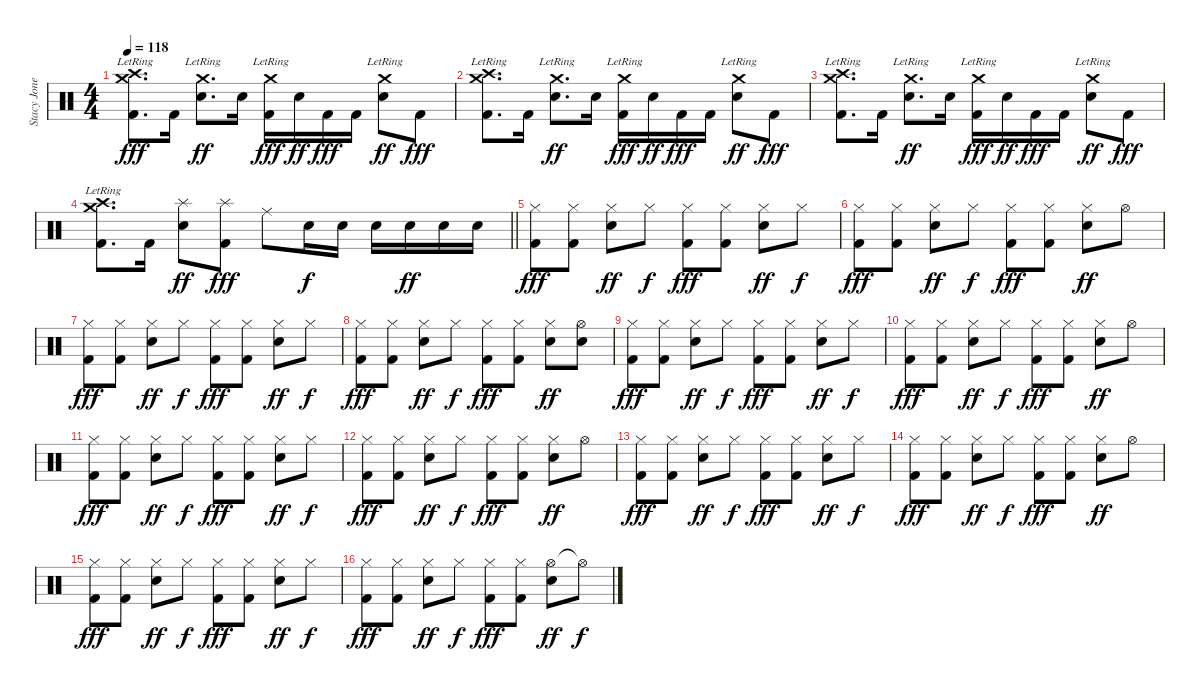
\track ("Stacy Jones: Remo/Sabian HHX/AAX" "Stacy Jone") {instrument percussion}
\staff {score}
\articulation defaults
\ts (4 4)
\tempo 118
\clef neutral
\ks c
("Crash medium (hit)"{lr} "Crash high (hit)"{lr} "Kick (hit) 2").8{d dy fff} "Kick (hit) 2".16 ("Crash medium (hit)"{lr} "Electric Snare (hit)").8{d dy ff} "Electric Snare (hit)".16 ("Crash medium (hit)"{lr} "Kick (hit) 2").16{dy fff} "Electric Snare (hit)".16{dy ff} "Kick (hit) 2".16{dy fff} "Kick (hit) 2".16 ("Crash medium (hit)"{lr} "Electric Snare (hit)").8{dy ff} "Kick (hit) 2".8{dy fff} |
("Crash medium (hit)"{lr} "Crash high (hit)"{lr} "Kick (hit) 2").8{d} "Kick (hit) 2".16 ("Crash medium (hit)"{lr} "Electric Snare (hit)").8{d dy ff} "Electric Snare (hit)".16 ("Crash medium (hit)"{lr} "Kick (hit) 2").16{dy fff} "Electric Snare (hit)".16{dy ff} "Kick (hit) 2".16{dy fff} "Kick (hit) 2".16 ("Crash medium (hit)"{lr} "Electric Snare (hit)").8{dy ff} "Kick (hit) 2".8{dy fff} |
("Crash medium (hit)"{lr} "Crash high (hit)"{lr} "Kick (hit) 2").8{d} "Kick (hit) 2".16 ("Crash medium (hit)"{lr} "Electric Snare (hit)").8{d dy ff} "Electric Snare (hit)".16 ("Crash medium (hit)"{lr} "Kick (hit) 2").16{dy fff} "Electric Snare (hit)".16{dy ff} "Kick (hit) 2".16{dy fff} "Kick (hit) 2".16 ("Crash medium (hit)"{lr} "Electric Snare (hit)").8{dy ff} "Kick (hit) 2".8{dy fff} |
\barLineRight lightlight
("Crash medium (hit)"{lr} "Crash high (hit)"{lr} "Kick (hit) 2").8{d} "Kick (hit) 2".16 ("Splash (hit)" "Electric Snare (hit)").8{dy ff} ("Splash (hit)" "Kick (hit) 2").8{dy fff} "Ride (middle)".8 "Electric Snare (hit)".16{dy f} "Electric Snare (hit)".16 "Electric Snare (hit)".16 "Electric Snare (hit)".16{dy ff} "Electric Snare (hit)".16 "Electric Snare (hit)".16 |
("Hi-Hat (closed)" "Kick (hit) 2").8{dy fff} ("Hi-Hat (closed)" "Kick (hit) 2").8 ("Hi-Hat (closed)" "Electric Snare (hit)").8{dy ff} "Hi-Hat (closed)".8{dy f} ("Hi-Hat (closed)" "Kick (hit) 2").8{dy fff} ("Hi-Hat (closed)" "Kick (hit) 2").8 ("Hi-Hat (closed)" "Electric Snare (hit)").8{dy ff} "Hi-Hat (closed)".8{dy f} |
("Hi-Hat (closed)" "Kick (hit) 2").8{dy fff} ("Hi-Hat (closed)" "Kick (hit) 2").8 ("Hi-Hat (closed)" "Electric Snare (hit)").8{dy ff} "Hi-Hat (closed)".8{dy f} ("Hi-Hat (closed)" "Kick (hit) 2").8{dy fff} ("Hi-Hat (closed)" "Kick (hit) 2").8 ("Hi-Hat (closed)" "Electric Snare (hit)").8{dy ff} "Hi-Hat (open)".8 |
("Hi-Hat (closed)" "Kick (hit) 2").8{dy fff} ("Hi-Hat (closed)" "Kick (hit) 2").8 ("Hi-Hat (closed)" "Electric Snare (hit)").8{dy ff} "Hi-Hat (closed)".8{dy f} ("Hi-Hat (closed)" "Kick (hit) 2").8{dy fff} ("Hi-Hat (closed)" "Kick (hit) 2").8 ("Hi-Hat (closed)" "Electric Snare (hit)").8{dy ff} "Hi-Hat (closed)".8{dy f} |
("Hi-Hat (closed)" "Kick (hit) 2").8{dy fff} ("Hi-Hat (closed)" "Kick (hit) 2").8 ("Hi-Hat (closed)" "Electric Snare (hit)").8{dy ff} "Hi-Hat (closed)".8{dy f} ("Hi-Hat (closed)" "Kick (hit) 2").8{dy fff} ("Hi-Hat (closed)" "Kick (hit) 2").8 ("Hi-Hat (closed)" "Electric Snare (hit)").8{dy ff} ("Hi-Hat (open)" "Electric Snare (hit)").8 |
("Hi-Hat (closed)" "Kick (hit) 2").8{dy fff} ("Hi-Hat (closed)" "Kick (hit) 2").8 ("Hi-Hat (closed)" "Electric Snare (hit)").8{dy ff} "Hi-Hat (closed)".8{dy f} ("Hi-Hat (closed)" "Kick (hit) 2").8{dy fff} ("Hi-Hat (closed)" "Kick (hit) 2").8 ("Hi-Hat (closed)" "Electric Snare (hit)").8{dy ff} "Hi-Hat (closed)".8{dy f} |
("Hi-Hat (closed)" "Kick (hit) 2").8{dy fff} ("Hi-Hat (closed)" "Kick (hit) 2").8 ("Hi-Hat (closed)" "Electric Snare (hit)").8{dy ff} "Hi-Hat (closed)".8{dy f} ("Hi-Hat (closed)" "Kick (hit) 2").8{dy fff} ("Hi-Hat (closed)" "Kick (hit) 2").8 ("Hi-Hat (closed)" "Electric Snare (hit)").8{dy ff} "Hi-Hat (open)".8 |
("Hi-Hat (closed)" "Kick (hit) 2").8{dy fff} ("Hi-Hat (closed)" "Kick (hit) 2").8 ("Hi-Hat (closed)" "Electric Snare (hit)").8{dy ff} "Hi-Hat (closed)".8{dy f} ("Hi-Hat (closed)" "Kick (hit) 2").8{dy fff} ("Hi-Hat (closed)" "Kick (hit) 2").8 ("Hi-Hat (closed)" "Electric Snare (hit)").8{dy ff} "Hi-Hat (closed)".8{dy f} |
("Hi-Hat (closed)" "Kick (hit) 2").8{dy fff} ("Hi-Hat (closed)" "Kick (hit) 2").8 ("Hi-Hat (closed)" "Electric Snare (hit)").8{dy ff} "Hi-Hat (closed)".8{dy f} ("Hi-Hat (closed)" "Kick (hit) 2").8{dy fff} ("Hi-Hat (closed)" "Kick (hit) 2").8 ("Hi-Hat (closed)" "Electric Snare (hit)").8{dy ff} "Hi-Hat (open)".8 |
("Hi-Hat (closed)" "Kick (hit) 2").8{dy fff} ("Hi-Hat (closed)" "Kick (hit) 2").8 ("Hi-Hat (closed)" "Electric Snare (hit)").8{dy ff} "Hi-Hat (closed)".8{dy f} ("Hi-Hat (closed)" "Kick (hit) 2").8{dy fff} ("Hi-Hat (closed)" "Kick (hit) 2").8 ("Hi-Hat (closed)" "Electric Snare (hit)").8{dy ff} "Hi-Hat (closed)".8{dy f} |
("Hi-Hat (closed)" "Kick (hit) 2").8{dy fff} ("Hi-Hat (closed)" "Kick (hit) 2").8 ("Hi-Hat (closed)" "Electric Snare (hit)").8{dy ff} "Hi-Hat (closed)".8{dy f} ("Hi-Hat (closed)" "Kick (hit) 2").8{dy fff} ("Hi-Hat (closed)" "Kick (hit) 2").8 ("Hi-Hat (closed)" "Electric Snare (hit)").8{dy ff} "Hi-Hat (open)".8 |
("Hi-Hat (closed)" "Kick (hit) 2").8{dy fff} ("Hi-Hat (closed)" "Kick (hit) 2").8 ("Hi-Hat (closed)" "Electric Snare (hit)").8{dy ff} "Hi-Hat (closed)".8{dy f} ("Hi-Hat (closed)" "Kick (hit) 2").8{dy fff} ("Hi-Hat (closed)" "Kick (hit) 2").8 ("Hi-Hat (closed)" "Electric Snare (hit)").8{dy ff} "Hi-Hat (closed)".8{dy f} |
("Hi-Hat (closed)" "Kick (hit) 2").8{dy fff} ("Hi-Hat (closed)" "Kick (hit) 2").8 ("Hi-Hat (closed)" "Electric Snare (hit)").8{dy ff} "Hi-Hat (closed)".8{dy f} ("Hi-Hat (closed)" "Kick (hit) 2").8{dy fff} ("Hi-Hat (closed)" "Kick (hit) 2").8 ("Hi-Hat (open)" "Electric Snare (hit)").8{dy ff} "Hi-Hat (open)"{t}.8{dy f}
